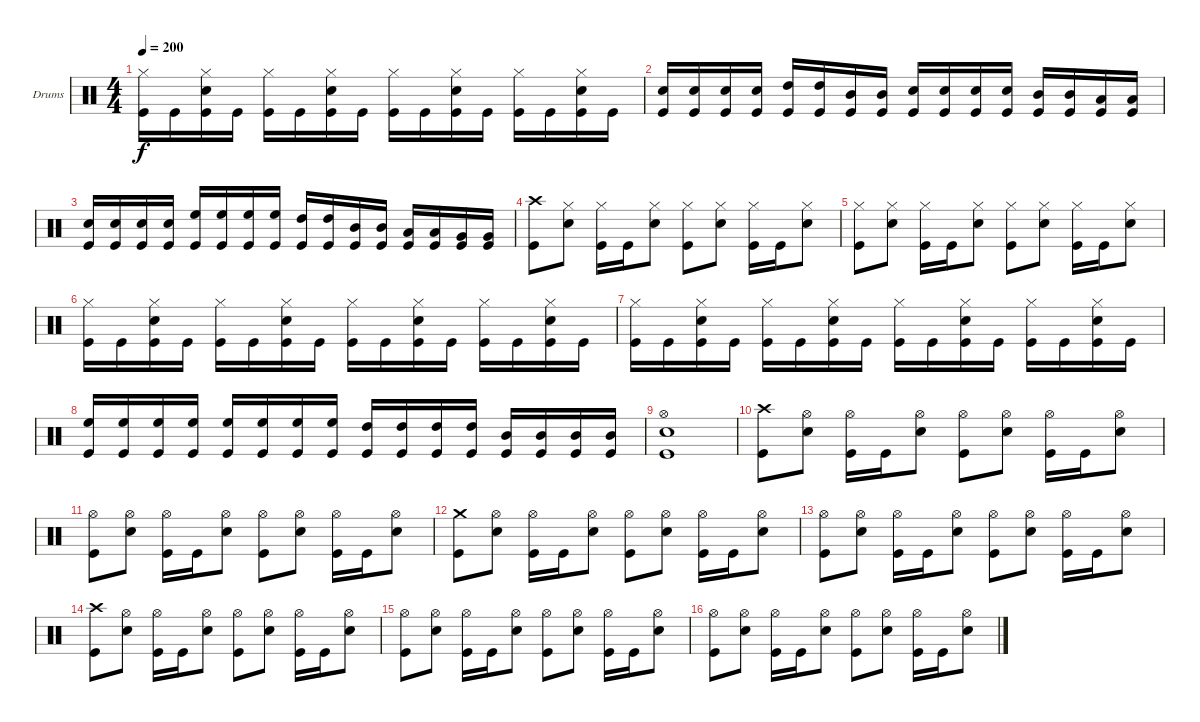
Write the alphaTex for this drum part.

\bracketExtendMode groupsimilarinstruments
\firstSystemTrackNameOrientation horizontal
\otherSystemsTrackNameOrientation horizontal
\track ("Drumkit" "Drums") {instrument percussion}
\staff {score}
\articulation defaults
\ts (4 4)
\tempo 200
\clef neutral
\ks aminor
("Kick (hit)" "Hi-Hat (closed)").16{dy f} "Kick (hit)".16 ("Kick (hit)" "Snare (hit) 2" "Hi-Hat (closed)").16 "Kick (hit)".16 ("Kick (hit)" "Hi-Hat (closed)").16 "Kick (hit)".16 ("Kick (hit)" "Snare (hit) 2" "Hi-Hat (closed)").16 "Kick (hit)".16 ("Kick (hit)" "Hi-Hat (closed)").16 "Kick (hit)".16 ("Kick (hit)" "Snare (hit) 2" "Hi-Hat (closed)").16 "Kick (hit)".16 ("Kick (hit)" "Hi-Hat (closed)").16 "Kick (hit)".16 ("Kick (hit)" "Snare (hit) 2" "Hi-Hat (closed)").16 "Kick (hit)".16 |
("Kick (hit)" "Snare (hit) 2").16 ("Kick (hit)" "Snare (hit) 2").16 ("Kick (hit)" "Snare (hit) 2").16 ("Kick (hit)" "Snare (hit) 2").16 ("Kick (hit)" "High Tom (hit)").16 ("Kick (hit)" "High Tom (hit)").16 ("Kick (hit)" "Mid Tom (hit)").16 ("Kick (hit)" "Mid Tom (hit)").16 ("Kick (hit)" "Snare (hit) 2").16 ("Kick (hit)" "Snare (hit) 2").16 ("Kick (hit)" "Snare (hit) 2").16 ("Kick (hit)" "Snare (hit) 2").16 ("Kick (hit)" "Mid Tom (hit)").16 ("Kick (hit)" "Mid Tom (hit)").16 ("Kick (hit)" "Low Tom (hit)").16 ("Kick (hit)" "Low Tom (hit)").16 |
("Kick (hit)" "Snare (hit) 2").16 ("Kick (hit)" "Snare (hit) 2").16 ("Kick (hit)" "Snare (hit) 2").16 ("Kick (hit)" "Snare (hit) 2").16 ("Kick (hit)" "High Floor Tom (hit)").16 ("Kick (hit)" "High Floor Tom (hit)").16 ("Kick (hit)" "High Floor Tom (hit)").16 ("Kick (hit)" "High Floor Tom (hit)").16 ("Kick (hit)" "High Tom (hit)").16 ("Kick (hit)" "High Tom (hit)").16 ("Kick (hit)" "Mid Tom (hit)").16 ("Kick (hit)" "Mid Tom (hit)").16 ("Kick (hit)" "Low Tom (hit)").16 ("Kick (hit)" "Low Tom (hit)").16 ("Kick (hit)" "Very Low Tom (hit)").16 ("Kick (hit)" "Very Low Tom (hit)").16 |
("Kick (hit)" "Crash high (hit)").8 ("Snare (hit) 2" "Hi-Hat (closed)").8 ("Kick (hit)" "Hi-Hat (closed)").16 "Kick (hit)".16 ("Snare (hit) 2" "Hi-Hat (closed)").8 ("Kick (hit)" "Hi-Hat (closed)").8 ("Snare (hit) 2" "Hi-Hat (closed)").8 ("Kick (hit)" "Hi-Hat (closed)").16 "Kick (hit)".16 ("Snare (hit) 2" "Hi-Hat (closed)").8 |
("Kick (hit)" "Hi-Hat (closed)").8 ("Snare (hit) 2" "Hi-Hat (closed)").8 ("Kick (hit)" "Hi-Hat (closed)").16 "Kick (hit)".16 ("Snare (hit) 2" "Hi-Hat (closed)").8 ("Kick (hit)" "Hi-Hat (closed)").8 ("Snare (hit) 2" "Hi-Hat (closed)").8 ("Kick (hit)" "Hi-Hat (closed)").16 "Kick (hit)".16 ("Snare (hit) 2" "Hi-Hat (closed)").8 |
("Kick (hit)" "Hi-Hat (closed)").16 "Kick (hit)".16 ("Kick (hit)" "Snare (hit) 2" "Hi-Hat (closed)").16 "Kick (hit)".16 ("Kick (hit)" "Hi-Hat (closed)").16 "Kick (hit)".16 ("Kick (hit)" "Snare (hit) 2" "Hi-Hat (closed)").16 "Kick (hit)".16 ("Kick (hit)" "Hi-Hat (closed)").16 "Kick (hit)".16 ("Kick (hit)" "Snare (hit) 2" "Hi-Hat (closed)").16 "Kick (hit)".16 ("Kick (hit)" "Hi-Hat (closed)").16 "Kick (hit)".16 ("Kick (hit)" "Snare (hit) 2" "Hi-Hat (closed)").16 "Kick (hit)".16 |
("Kick (hit)" "Hi-Hat (closed)").16 "Kick (hit)".16 ("Kick (hit)" "Snare (hit) 2" "Hi-Hat (closed)").16 "Kick (hit)".16 ("Kick (hit)" "Hi-Hat (closed)").16 "Kick (hit)".16 ("Kick (hit)" "Snare (hit) 2" "Hi-Hat (closed)").16 "Kick (hit)".16 ("Kick (hit)" "Hi-Hat (closed)").16 "Kick (hit)".16 ("Kick (hit)" "Snare (hit) 2" "Hi-Hat (closed)").16 "Kick (hit)".16 ("Kick (hit)" "Hi-Hat (closed)").16 "Kick (hit)".16 ("Kick (hit)" "Snare (hit) 2" "Hi-Hat (closed)").16 "Kick (hit)".16 |
("Kick (hit)" "High Floor Tom (hit)").16 ("Kick (hit)" "High Floor Tom (hit)").16 ("Kick (hit)" "High Floor Tom (hit)").16 ("Kick (hit)" "High Floor Tom (hit)").16 ("Kick (hit)" "High Floor Tom (hit)").16 ("Kick (hit)" "High Floor Tom (hit)").16 ("Kick (hit)" "High Floor Tom (hit)").16 ("Kick (hit)" "High Floor Tom (hit)").16 ("Kick (hit)" "High Tom (hit)").16 ("Kick (hit)" "High Tom (hit)").16 ("Kick (hit)" "High Tom (hit)").16 ("Kick (hit)" "High Tom (hit)").16 ("Kick (hit)" "Mid Tom (hit)").16 ("Kick (hit)" "Mid Tom (hit)").16 ("Kick (hit)" "Mid Tom (hit)").16 ("Kick (hit)" "Mid Tom (hit)").16 |
("Kick (hit)" "Snare (hit) 2" "Hi-Hat (open)").1 |
\section ("" "")
("Kick (hit)" "Crash high (hit)").8 ("Snare (hit) 2" "Hi-Hat (open)").8 ("Kick (hit)" "Hi-Hat (open)").16 "Kick (hit)".16 ("Snare (hit) 2" "Hi-Hat (open)").8 ("Kick (hit)" "Hi-Hat (open)").8 ("Snare (hit) 2" "Hi-Hat (open)").8 ("Kick (hit)" "Hi-Hat (open)").16 "Kick (hit)".16 ("Snare (hit) 2" "Hi-Hat (open)").8 |
("Kick (hit)" "Hi-Hat (open)").8 ("Snare (hit) 2" "Hi-Hat (open)").8 ("Kick (hit)" "Hi-Hat (open)").16 "Kick (hit)".16 ("Snare (hit) 2" "Hi-Hat (open)").8 ("Kick (hit)" "Hi-Hat (open)").8 ("Snare (hit) 2" "Hi-Hat (open)").8 ("Kick (hit)" "Hi-Hat (open)").16 "Kick (hit)".16 ("Snare (hit) 2" "Hi-Hat (open)").8 |
("Kick (hit)" "Crash medium (hit)").8 ("Snare (hit) 2" "Hi-Hat (open)").8 ("Kick (hit)" "Hi-Hat (open)").16 "Kick (hit)".16 ("Snare (hit) 2" "Hi-Hat (open)").8 ("Kick (hit)" "Hi-Hat (open)").8 ("Snare (hit) 2" "Hi-Hat (open)").8 ("Kick (hit)" "Hi-Hat (open)").16 "Kick (hit)".16 ("Snare (hit) 2" "Hi-Hat (open)").8 |
("Kick (hit)" "Hi-Hat (open)").8 ("Snare (hit) 2" "Hi-Hat (open)").8 ("Kick (hit)" "Hi-Hat (open)").16 "Kick (hit)".16 ("Snare (hit) 2" "Hi-Hat (open)").8 ("Kick (hit)" "Hi-Hat (open)").8 ("Snare (hit) 2" "Hi-Hat (open)").8 ("Kick (hit)" "Hi-Hat (open)").16 "Kick (hit)".16 ("Snare (hit) 2" "Hi-Hat (open)").8 |
("Kick (hit)" "Crash high (hit)").8 ("Snare (hit) 2" "Hi-Hat (open)").8 ("Kick (hit)" "Hi-Hat (open)").16 "Kick (hit)".16 ("Snare (hit) 2" "Hi-Hat (open)").8 ("Kick (hit)" "Hi-Hat (open)").8 ("Snare (hit) 2" "Hi-Hat (open)").8 ("Kick (hit)" "Hi-Hat (open)").16 "Kick (hit)".16 ("Snare (hit) 2" "Hi-Hat (open)").8 |
("Kick (hit)" "Hi-Hat (open)").8 ("Snare (hit) 2" "Hi-Hat (open)").8 ("Kick (hit)" "Hi-Hat (open)").16 "Kick (hit)".16 ("Snare (hit) 2" "Hi-Hat (open)").8 ("Kick (hit)" "Hi-Hat (open)").8 ("Snare (hit) 2" "Hi-Hat (open)").8 ("Kick (hit)" "Hi-Hat (open)").16 "Kick (hit)".16 ("Snare (hit) 2" "Hi-Hat (open)").8 |
("Kick (hit)" "Hi-Hat (open)").8 ("Snare (hit) 2" "Hi-Hat (open)").8 ("Kick (hit)" "Hi-Hat (open)").16 "Kick (hit)".16 ("Snare (hit) 2" "Hi-Hat (open)").8 ("Kick (hit)" "Hi-Hat (open)").8 ("Snare (hit) 2" "Hi-Hat (open)").8 ("Kick (hit)" "Hi-Hat (open)").16 "Kick (hit)".16 ("Snare (hit) 2" "Hi-Hat (open)").8
